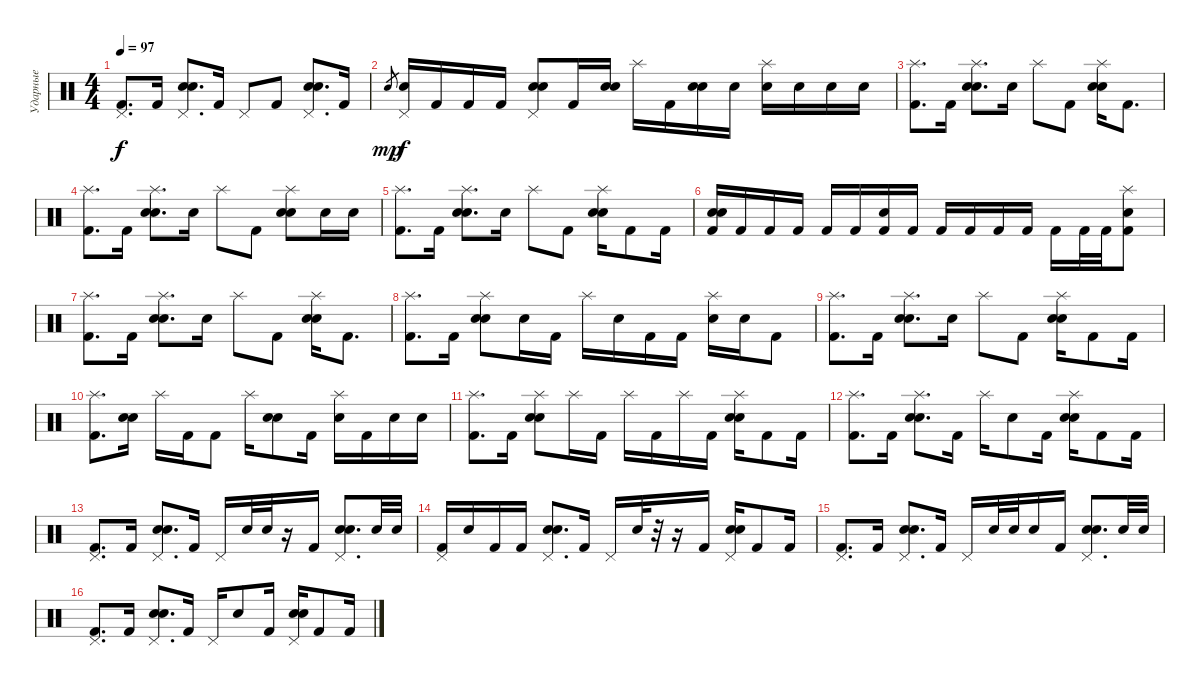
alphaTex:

\track ("Ударные" "Ударные") {instrument percussion}
\staff {score}
\articulation defaults
\ts (4 4)
\tempo 97
\clef neutral
\ks c
("Pedal Hi-Hat (hit)" "Kick (hit) 2").8{d dy f} "Kick (hit) 2".16 ("Pedal Hi-Hat (hit)" "Electric Snare (hit)" "Snare (hit) 2").8{d} "Kick (hit) 2".16 "Pedal Hi-Hat (hit)".8 "Kick (hit) 2".8 ("Pedal Hi-Hat (hit)" "Electric Snare (hit)" "Snare (hit) 2").8{d} "Kick (hit) 2".16 |
"Electric Snare (hit)".8{gr dy mp} ("Pedal Hi-Hat (hit)" "Electric Snare (hit)").16{dy f} "Kick (hit) 2".16 "Kick (hit) 2".16 "Kick (hit) 2".16 ("Pedal Hi-Hat (hit)" "Electric Snare (hit)" "Snare (hit) 2").8 "Kick (hit) 2".16 ("Electric Snare (hit)" "Snare (hit) 2").16 "Splash (hit)".16 "Kick (hit) 2".16 ("Electric Snare (hit)" "Snare (hit) 2").16 "Electric Snare (hit)".16 ("Splash (hit)" "Electric Snare (hit)").16 "Electric Snare (hit)".16 "Electric Snare (hit)".16 "Electric Snare (hit)".16 |
("Splash (hit)" "Kick (hit) 2").8{d} "Kick (hit) 2".16 ("Splash (hit)" "Electric Snare (hit)" "Snare (hit) 2").8{d} "Electric Snare (hit)".16 "Splash (hit)".8 "Kick (hit) 2".8 ("Splash (hit)" "Electric Snare (hit)" "Snare (hit) 2").16 "Kick (hit) 2".8{d} |
("Splash (hit)" "Kick (hit) 2").8{d} "Kick (hit) 2".16 ("Splash (hit)" "Electric Snare (hit)" "Snare (hit) 2").8{d} "Electric Snare (hit)".16 "Splash (hit)".8 "Kick (hit) 2".8 ("Splash (hit)" "Electric Snare (hit)" "Snare (hit) 2").8 "Electric Snare (hit)".16 "Electric Snare (hit)".16 |
("Splash (hit)" "Kick (hit) 2").8{d} "Kick (hit) 2".16 ("Splash (hit)" "Electric Snare (hit)" "Snare (hit) 2").8{d} "Electric Snare (hit)".16 "Splash (hit)".8 "Kick (hit) 2".8 ("Splash (hit)" "Electric Snare (hit)" "Snare (hit) 2").16 "Kick (hit) 2".8 "Kick (hit) 2".16 |
("Electric Snare (hit)" "Snare (hit) 2" "Kick (hit) 2").16 "Kick (hit) 2".16 "Kick (hit) 2".16 "Kick (hit) 2".16 "Kick (hit) 2".16 "Kick (hit) 2".16 ("Electric Snare (hit)" "Kick (hit) 2").16 "Kick (hit) 2".16 "Kick (hit) 2".16 "Kick (hit) 2".16 "Kick (hit) 2".16 "Kick (hit) 2".16 "Kick (hit) 2".16 "Kick (hit) 2".32 "Kick (hit) 2".32 ("Splash (hit)" "Electric Snare (hit)" "Kick (hit) 2").8 |
("Splash (hit)" "Kick (hit) 2").8{d} "Kick (hit) 2".16 ("Splash (hit)" "Electric Snare (hit)" "Snare (hit) 2").8{d} "Electric Snare (hit)".16 "Splash (hit)".8 "Kick (hit) 2".8 ("Splash (hit)" "Electric Snare (hit)" "Snare (hit) 2").16 "Kick (hit) 2".8{d} |
("Splash (hit)" "Kick (hit) 2").8{d} "Kick (hit) 2".16 ("Splash (hit)" "Electric Snare (hit)" "Snare (hit) 2").8 "Electric Snare (hit)".16 "Kick (hit) 2".16 "Splash (hit)".16 "Electric Snare (hit)".16 "Kick (hit) 2".16 "Kick (hit) 2".16 ("Splash (hit)" "Electric Snare (hit)").16 "Electric Snare (hit)".16 "Kick (hit) 2".8 |
("Splash (hit)" "Kick (hit) 2").8{d} "Kick (hit) 2".16 ("Splash (hit)" "Electric Snare (hit)" "Snare (hit) 2").8{d} "Electric Snare (hit)".16 "Splash (hit)".8 "Kick (hit) 2".8 ("Splash (hit)" "Electric Snare (hit)" "Snare (hit) 2").16 "Kick (hit) 2".8 "Kick (hit) 2".16 |
("Splash (hit)" "Kick (hit) 2").8{d} ("Electric Snare (hit)" "Snare (hit) 2").16 "Splash (hit)".16 "Kick (hit) 2".16 "Kick (hit) 2".8 "Splash (hit)".16 ("Electric Snare (hit)" "Snare (hit) 2").8 "Kick (hit) 2".16 ("Splash (hit)" "Electric Snare (hit)").16 "Kick (hit) 2".16 "Electric Snare (hit)".16 "Electric Snare (hit)".16 |
("Splash (hit)" "Kick (hit) 2").8{d} "Kick (hit) 2".16 ("Splash (hit)" "Electric Snare (hit)" "Snare (hit) 2").8 "Splash (hit)".16 "Kick (hit) 2".16 "Splash (hit)".16 "Kick (hit) 2".16 "Splash (hit)".16 "Kick (hit) 2".16 ("Splash (hit)" "Electric Snare (hit)" "Snare (hit) 2").16 "Kick (hit) 2".8 "Kick (hit) 2".16 |
("Splash (hit)" "Kick (hit) 2").8{d} "Kick (hit) 2".16 ("Splash (hit)" "Electric Snare (hit)" "Snare (hit) 2").8{d} "Kick (hit) 2".16 "Splash (hit)".16 "Electric Snare (hit)".8 "Kick (hit) 2".16 ("Splash (hit)" "Electric Snare (hit)" "Snare (hit) 2").16 "Kick (hit) 2".8 "Kick (hit) 2".16 |
("Pedal Hi-Hat (hit)" "Kick (hit) 2").8{d} "Kick (hit) 2".16 ("Pedal Hi-Hat (hit)" "Electric Snare (hit)" "Snare (hit) 2").8{d} "Kick (hit) 2".16 "Pedal Hi-Hat (hit)".16 "Electric Snare (hit)".32 "Electric Snare (hit)".32 r.16 "Kick (hit) 2".16 ("Pedal Hi-Hat (hit)" "Electric Snare (hit)" "Snare (hit) 2").8{d} "Electric Snare (hit)".32 "Electric Snare (hit)".32 |
("Pedal Hi-Hat (hit)" "Kick (hit) 2").16 "Electric Snare (hit)".16 "Kick (hit) 2".16 "Kick (hit) 2".16 ("Pedal Hi-Hat (hit)" "Electric Snare (hit)" "Snare (hit) 2").8{d} "Kick (hit) 2".16 "Pedal Hi-Hat (hit)".16 "Electric Snare (hit)".32 r.32 r.16 "Kick (hit) 2".16 ("Pedal Hi-Hat (hit)" "Electric Snare (hit)" "Snare (hit) 2").16 "Kick (hit) 2".8 "Kick (hit) 2".16 |
("Pedal Hi-Hat (hit)" "Kick (hit) 2").8{d} "Kick (hit) 2".16 ("Pedal Hi-Hat (hit)" "Electric Snare (hit)" "Snare (hit) 2").8{d} "Kick (hit) 2".16 "Pedal Hi-Hat (hit)".16 "Electric Snare (hit)".32 "Electric Snare (hit)".32 "Electric Snare (hit)".16 "Kick (hit) 2".16 ("Pedal Hi-Hat (hit)" "Electric Snare (hit)" "Snare (hit) 2").8{d} "Electric Snare (hit)".32 "Electric Snare (hit)".32 |
("Pedal Hi-Hat (hit)" "Kick (hit) 2").8{d} "Kick (hit) 2".16 ("Pedal Hi-Hat (hit)" "Electric Snare (hit)" "Snare (hit) 2").8{d} "Kick (hit) 2".16 "Pedal Hi-Hat (hit)".16 "Electric Snare (hit)".8 "Kick (hit) 2".16 ("Pedal Hi-Hat (hit)" "Electric Snare (hit)" "Snare (hit) 2").16 "Kick (hit) 2".8 "Kick (hit) 2".16
